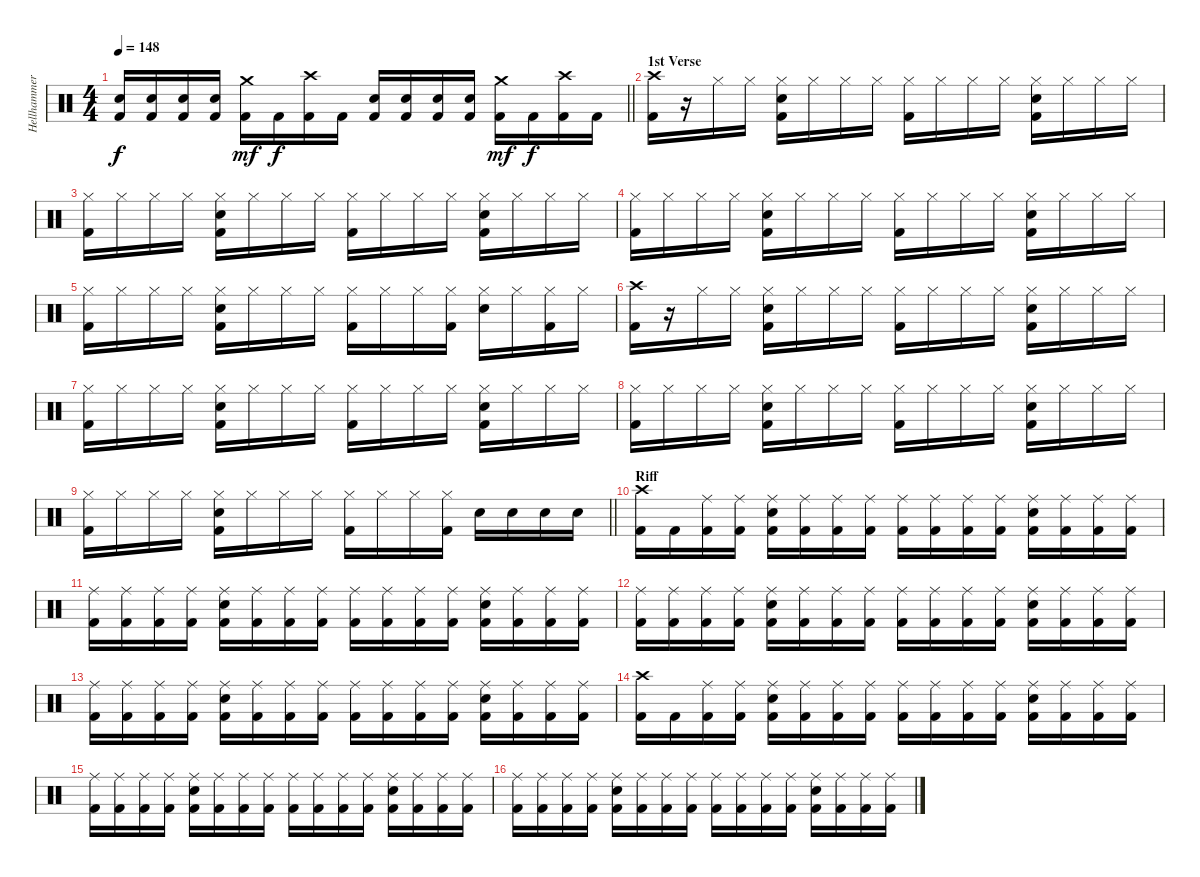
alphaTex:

\track ("Hellhammer" "Hellhammer") {instrument percussion}
\staff {score}
\articulation defaults
\ts (4 4)
\tempo 148
\clef neutral
\barLineRight lightlight
\ks c
("Snare (hit) 2" "Kick (hit) 2").16{dy f} ("Snare (hit) 2" "Kick (hit) 2").16 ("Snare (hit) 2" "Kick (hit) 2").16 ("Snare (hit) 2" "Kick (hit) 2").16 ("Crash medium (hit)" "Kick (hit) 2").16{dy mf} "Kick (hit) 2".16{dy f} ("Crash high (hit)" "Kick (hit) 2").16 "Kick (hit) 2".16 ("Snare (hit) 2" "Kick (hit) 2").16 ("Snare (hit) 2" "Kick (hit) 2").16 ("Snare (hit) 2" "Kick (hit) 2").16 ("Snare (hit) 2" "Kick (hit) 2").16 ("Crash medium (hit)" "Kick (hit) 2").16{dy mf} "Kick (hit) 2".16{dy f} ("Crash high (hit)" "Kick (hit) 2").16 "Kick (hit) 2".16 |
\section ("" "1st Verse")
("Crash high (hit)" "Kick (hit) 2").16 r.16 "Hi-Hat (closed)".16 "Hi-Hat (closed)".16 ("Hi-Hat (closed)" "Snare (hit) 2" "Kick (hit) 2").16 "Hi-Hat (closed)".16 "Hi-Hat (closed)".16 "Hi-Hat (closed)".16 ("Hi-Hat (closed)" "Kick (hit) 2").16 "Hi-Hat (closed)".16 "Hi-Hat (closed)".16 "Hi-Hat (closed)".16 ("Hi-Hat (closed)" "Snare (hit) 2" "Kick (hit) 2").16 "Hi-Hat (closed)".16 "Hi-Hat (closed)".16 "Hi-Hat (closed)".16 |
("Hi-Hat (closed)" "Kick (hit) 2").16 "Hi-Hat (closed)".16 "Hi-Hat (closed)".16 "Hi-Hat (closed)".16 ("Hi-Hat (closed)" "Snare (hit) 2" "Kick (hit) 2").16 "Hi-Hat (closed)".16 "Hi-Hat (closed)".16 "Hi-Hat (closed)".16 ("Hi-Hat (closed)" "Kick (hit) 2").16 "Hi-Hat (closed)".16 "Hi-Hat (closed)".16 "Hi-Hat (closed)".16 ("Hi-Hat (closed)" "Snare (hit) 2" "Kick (hit) 2").16 "Hi-Hat (closed)".16 "Hi-Hat (closed)".16 "Hi-Hat (closed)".16 |
("Hi-Hat (closed)" "Kick (hit) 2").16 "Hi-Hat (closed)".16 "Hi-Hat (closed)".16 "Hi-Hat (closed)".16 ("Hi-Hat (closed)" "Snare (hit) 2" "Kick (hit) 2").16 "Hi-Hat (closed)".16 "Hi-Hat (closed)".16 "Hi-Hat (closed)".16 ("Hi-Hat (closed)" "Kick (hit) 2").16 "Hi-Hat (closed)".16 "Hi-Hat (closed)".16 "Hi-Hat (closed)".16 ("Hi-Hat (closed)" "Snare (hit) 2" "Kick (hit) 2").16 "Hi-Hat (closed)".16 "Hi-Hat (closed)".16 "Hi-Hat (closed)".16 |
("Hi-Hat (closed)" "Kick (hit) 2").16 "Hi-Hat (closed)".16 "Hi-Hat (closed)".16 "Hi-Hat (closed)".16 ("Hi-Hat (closed)" "Snare (hit) 2" "Kick (hit) 2").16 "Hi-Hat (closed)".16 "Hi-Hat (closed)".16 "Hi-Hat (closed)".16 ("Hi-Hat (closed)" "Kick (hit) 2").16 "Hi-Hat (closed)".16 "Hi-Hat (closed)".16 ("Hi-Hat (closed)" "Kick (hit) 2").16 ("Hi-Hat (closed)" "Snare (hit) 2").16 "Hi-Hat (closed)".16 ("Hi-Hat (closed)" "Kick (hit) 2").16 "Hi-Hat (closed)".16 |
("Crash high (hit)" "Kick (hit) 2").16 r.16 "Hi-Hat (closed)".16 "Hi-Hat (closed)".16 ("Hi-Hat (closed)" "Snare (hit) 2" "Kick (hit) 2").16 "Hi-Hat (closed)".16 "Hi-Hat (closed)".16 "Hi-Hat (closed)".16 ("Hi-Hat (closed)" "Kick (hit) 2").16 "Hi-Hat (closed)".16 "Hi-Hat (closed)".16 "Hi-Hat (closed)".16 ("Hi-Hat (closed)" "Snare (hit) 2" "Kick (hit) 2").16 "Hi-Hat (closed)".16 "Hi-Hat (closed)".16 "Hi-Hat (closed)".16 |
("Hi-Hat (closed)" "Kick (hit) 2").16 "Hi-Hat (closed)".16 "Hi-Hat (closed)".16 "Hi-Hat (closed)".16 ("Hi-Hat (closed)" "Snare (hit) 2" "Kick (hit) 2").16 "Hi-Hat (closed)".16 "Hi-Hat (closed)".16 "Hi-Hat (closed)".16 ("Hi-Hat (closed)" "Kick (hit) 2").16 "Hi-Hat (closed)".16 "Hi-Hat (closed)".16 "Hi-Hat (closed)".16 ("Hi-Hat (closed)" "Snare (hit) 2" "Kick (hit) 2").16 "Hi-Hat (closed)".16 "Hi-Hat (closed)".16 "Hi-Hat (closed)".16 |
("Hi-Hat (closed)" "Kick (hit) 2").16 "Hi-Hat (closed)".16 "Hi-Hat (closed)".16 "Hi-Hat (closed)".16 ("Hi-Hat (closed)" "Snare (hit) 2" "Kick (hit) 2").16 "Hi-Hat (closed)".16 "Hi-Hat (closed)".16 "Hi-Hat (closed)".16 ("Hi-Hat (closed)" "Kick (hit) 2").16 "Hi-Hat (closed)".16 "Hi-Hat (closed)".16 "Hi-Hat (closed)".16 ("Hi-Hat (closed)" "Snare (hit) 2" "Kick (hit) 2").16 "Hi-Hat (closed)".16 "Hi-Hat (closed)".16 "Hi-Hat (closed)".16 |
\barLineRight lightlight
("Hi-Hat (closed)" "Kick (hit) 2").16 "Hi-Hat (closed)".16 "Hi-Hat (closed)".16 "Hi-Hat (closed)".16 ("Hi-Hat (closed)" "Snare (hit) 2" "Kick (hit) 2").16 "Hi-Hat (closed)".16 "Hi-Hat (closed)".16 "Hi-Hat (closed)".16 ("Hi-Hat (closed)" "Kick (hit) 2").16 "Hi-Hat (closed)".16 "Hi-Hat (closed)".16 ("Hi-Hat (closed)" "Kick (hit) 2").16 "Snare (hit) 2".16 "Snare (hit) 2".16 "Snare (hit) 2".16 "Snare (hit) 2".16 |
\section ("" "Riff ")
("Crash high (hit)" "Kick (hit) 2").16 "Kick (hit) 2".16 ("Ride (middle)" "Kick (hit) 2").16 ("Ride (middle)" "Kick (hit) 2").16 ("Ride (middle)" "Snare (hit) 2" "Kick (hit) 2").16 ("Ride (middle)" "Kick (hit) 2").16 ("Ride (middle)" "Kick (hit) 2").16 ("Ride (middle)" "Kick (hit) 2").16 ("Ride (middle)" "Kick (hit) 2").16 ("Ride (middle)" "Kick (hit) 2").16 ("Ride (middle)" "Kick (hit) 2").16 ("Ride (middle)" "Kick (hit) 2").16 ("Ride (middle)" "Snare (hit) 2" "Kick (hit) 2").16 ("Ride (middle)" "Kick (hit) 2").16 ("Ride (middle)" "Kick (hit) 2").16 ("Ride (middle)" "Kick (hit) 2").16 |
("Ride (middle)" "Kick (hit) 2").16 ("Ride (middle)" "Kick (hit) 2").16 ("Ride (middle)" "Kick (hit) 2").16 ("Ride (middle)" "Kick (hit) 2").16 ("Ride (middle)" "Snare (hit) 2" "Kick (hit) 2").16 ("Ride (middle)" "Kick (hit) 2").16 ("Ride (middle)" "Kick (hit) 2").16 ("Ride (middle)" "Kick (hit) 2").16 ("Ride (middle)" "Kick (hit) 2").16 ("Ride (middle)" "Kick (hit) 2").16 ("Ride (middle)" "Kick (hit) 2").16 ("Ride (middle)" "Kick (hit) 2").16 ("Ride (middle)" "Snare (hit) 2" "Kick (hit) 2").16 ("Ride (middle)" "Kick (hit) 2").16 ("Ride (middle)" "Kick (hit) 2").16 ("Ride (middle)" "Kick (hit) 2").16 |
("Ride (middle)" "Kick (hit) 2").16 ("Ride (middle)" "Kick (hit) 2").16 ("Ride (middle)" "Kick (hit) 2").16 ("Ride (middle)" "Kick (hit) 2").16 ("Ride (middle)" "Snare (hit) 2" "Kick (hit) 2").16 ("Ride (middle)" "Kick (hit) 2").16 ("Ride (middle)" "Kick (hit) 2").16 ("Ride (middle)" "Kick (hit) 2").16 ("Ride (middle)" "Kick (hit) 2").16 ("Ride (middle)" "Kick (hit) 2").16 ("Ride (middle)" "Kick (hit) 2").16 ("Ride (middle)" "Kick (hit) 2").16 ("Ride (middle)" "Snare (hit) 2" "Kick (hit) 2").16 ("Ride (middle)" "Kick (hit) 2").16 ("Ride (middle)" "Kick (hit) 2").16 ("Ride (middle)" "Kick (hit) 2").16 |
("Ride (middle)" "Kick (hit) 2").16 ("Ride (middle)" "Kick (hit) 2").16 ("Ride (middle)" "Kick (hit) 2").16 ("Ride (middle)" "Kick (hit) 2").16 ("Ride (middle)" "Snare (hit) 2" "Kick (hit) 2").16 ("Ride (middle)" "Kick (hit) 2").16 ("Ride (middle)" "Kick (hit) 2").16 ("Ride (middle)" "Kick (hit) 2").16 ("Ride (middle)" "Kick (hit) 2").16 ("Ride (middle)" "Kick (hit) 2").16 ("Ride (middle)" "Kick (hit) 2").16 ("Ride (middle)" "Kick (hit) 2").16 ("Ride (middle)" "Snare (hit) 2" "Kick (hit) 2").16 ("Ride (middle)" "Kick (hit) 2").16 ("Ride (middle)" "Kick (hit) 2").16 ("Ride (middle)" "Kick (hit) 2").16 |
("Crash high (hit)" "Kick (hit) 2").16 "Kick (hit) 2".16 ("Ride (middle)" "Kick (hit) 2").16 ("Ride (middle)" "Kick (hit) 2").16 ("Ride (middle)" "Snare (hit) 2" "Kick (hit) 2").16 ("Ride (middle)" "Kick (hit) 2").16 ("Ride (middle)" "Kick (hit) 2").16 ("Ride (middle)" "Kick (hit) 2").16 ("Ride (middle)" "Kick (hit) 2").16 ("Ride (middle)" "Kick (hit) 2").16 ("Ride (middle)" "Kick (hit) 2").16 ("Ride (middle)" "Kick (hit) 2").16 ("Ride (middle)" "Snare (hit) 2" "Kick (hit) 2").16 ("Ride (middle)" "Kick (hit) 2").16 ("Ride (middle)" "Kick (hit) 2").16 ("Ride (middle)" "Kick (hit) 2").16 |
("Ride (middle)" "Kick (hit) 2").16 ("Ride (middle)" "Kick (hit) 2").16 ("Ride (middle)" "Kick (hit) 2").16 ("Ride (middle)" "Kick (hit) 2").16 ("Ride (middle)" "Snare (hit) 2" "Kick (hit) 2").16 ("Ride (middle)" "Kick (hit) 2").16 ("Ride (middle)" "Kick (hit) 2").16 ("Ride (middle)" "Kick (hit) 2").16 ("Ride (middle)" "Kick (hit) 2").16 ("Ride (middle)" "Kick (hit) 2").16 ("Ride (middle)" "Kick (hit) 2").16 ("Ride (middle)" "Kick (hit) 2").16 ("Ride (middle)" "Snare (hit) 2" "Kick (hit) 2").16 ("Ride (middle)" "Kick (hit) 2").16 ("Ride (middle)" "Kick (hit) 2").16 ("Ride (middle)" "Kick (hit) 2").16 |
("Ride (middle)" "Kick (hit) 2").16 ("Ride (middle)" "Kick (hit) 2").16 ("Ride (middle)" "Kick (hit) 2").16 ("Ride (middle)" "Kick (hit) 2").16 ("Ride (middle)" "Snare (hit) 2" "Kick (hit) 2").16 ("Ride (middle)" "Kick (hit) 2").16 ("Ride (middle)" "Kick (hit) 2").16 ("Ride (middle)" "Kick (hit) 2").16 ("Ride (middle)" "Kick (hit) 2").16 ("Ride (middle)" "Kick (hit) 2").16 ("Ride (middle)" "Kick (hit) 2").16 ("Ride (middle)" "Kick (hit) 2").16 ("Ride (middle)" "Snare (hit) 2" "Kick (hit) 2").16 ("Ride (middle)" "Kick (hit) 2").16 ("Ride (middle)" "Kick (hit) 2").16 ("Ride (middle)" "Kick (hit) 2").16
